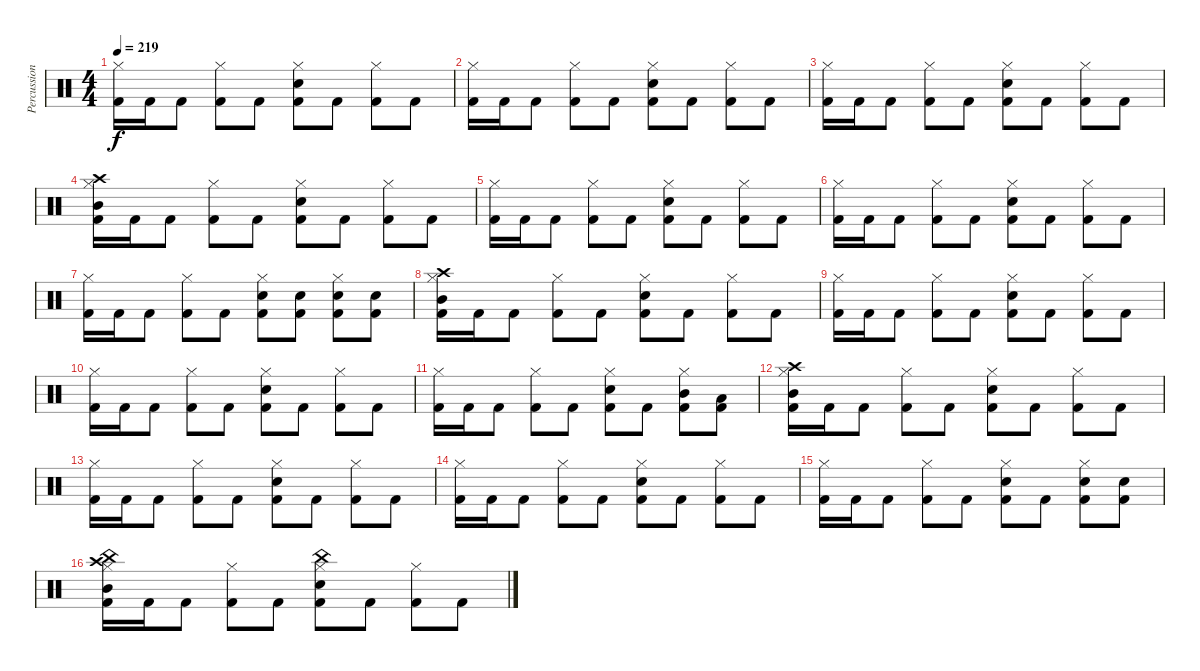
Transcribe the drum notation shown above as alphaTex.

\track ("Percussion" "Percussion") {instrument percussion}
\staff {score}
\articulation defaults
\ts (4 4)
\tempo 219
\clef neutral
\ks c
("Hi-Hat (closed)" "Kick (hit) 2").16{dy f} "Kick (hit) 2".16 "Kick (hit) 2".8 ("Hi-Hat (closed)" "Kick (hit) 2").8 "Kick (hit) 2".8 ("Hi-Hat (closed)" "Electric Snare (hit)" "Kick (hit) 2").8 "Kick (hit) 2".8 ("Hi-Hat (closed)" "Kick (hit) 2").8 "Kick (hit) 2".8 |
("Hi-Hat (closed)" "Kick (hit) 2").16 "Kick (hit) 2".16 "Kick (hit) 2".8 ("Hi-Hat (closed)" "Kick (hit) 2").8 "Kick (hit) 2".8 ("Hi-Hat (closed)" "Electric Snare (hit)" "Kick (hit) 2").8 "Kick (hit) 2".8 ("Hi-Hat (closed)" "Kick (hit) 2").8 "Kick (hit) 2".8 |
("Hi-Hat (closed)" "Kick (hit) 2").16 "Kick (hit) 2".16 "Kick (hit) 2".8 ("Hi-Hat (closed)" "Kick (hit) 2").8 "Kick (hit) 2".8 ("Hi-Hat (closed)" "Electric Snare (hit)" "Kick (hit) 2").8 "Kick (hit) 2".8 ("Hi-Hat (closed)" "Kick (hit) 2").8 "Kick (hit) 2".8 |
("Crash high (hit)" "Mid Tom (hit)" "Hi-Hat (closed)" "Kick (hit) 2").16 "Kick (hit) 2".16 "Kick (hit) 2".8 ("Hi-Hat (closed)" "Kick (hit) 2").8 "Kick (hit) 2".8 ("Hi-Hat (closed)" "Electric Snare (hit)" "Kick (hit) 2").8 "Kick (hit) 2".8 ("Hi-Hat (closed)" "Kick (hit) 2").8 "Kick (hit) 2".8 |
("Hi-Hat (closed)" "Kick (hit) 2").16 "Kick (hit) 2".16 "Kick (hit) 2".8 ("Hi-Hat (closed)" "Kick (hit) 2").8 "Kick (hit) 2".8 ("Hi-Hat (closed)" "Electric Snare (hit)" "Kick (hit) 2").8 "Kick (hit) 2".8 ("Hi-Hat (closed)" "Kick (hit) 2").8 "Kick (hit) 2".8 |
("Hi-Hat (closed)" "Kick (hit) 2").16 "Kick (hit) 2".16 "Kick (hit) 2".8 ("Hi-Hat (closed)" "Kick (hit) 2").8 "Kick (hit) 2".8 ("Hi-Hat (closed)" "Electric Snare (hit)" "Kick (hit) 2").8 "Kick (hit) 2".8 ("Hi-Hat (closed)" "Kick (hit) 2").8 "Kick (hit) 2".8 |
("Hi-Hat (closed)" "Kick (hit) 2").16 "Kick (hit) 2".16 "Kick (hit) 2".8 ("Hi-Hat (closed)" "Kick (hit) 2").8 "Kick (hit) 2".8 ("Hi-Hat (closed)" "Electric Snare (hit)" "Kick (hit) 2").8 ("Electric Snare (hit)" "Kick (hit) 2").8 ("Hi-Hat (closed)" "Electric Snare (hit)" "Kick (hit) 2").8 ("Electric Snare (hit)" "Kick (hit) 2").8 |
("Crash high (hit)" "Mid Tom (hit)" "Hi-Hat (closed)" "Kick (hit) 2").16 "Kick (hit) 2".16 "Kick (hit) 2".8 ("Hi-Hat (closed)" "Kick (hit) 2").8 "Kick (hit) 2".8 ("Hi-Hat (closed)" "Electric Snare (hit)" "Kick (hit) 2").8 "Kick (hit) 2".8 ("Hi-Hat (closed)" "Kick (hit) 2").8 "Kick (hit) 2".8 |
("Hi-Hat (closed)" "Kick (hit) 2").16 "Kick (hit) 2".16 "Kick (hit) 2".8 ("Hi-Hat (closed)" "Kick (hit) 2").8 "Kick (hit) 2".8 ("Hi-Hat (closed)" "Electric Snare (hit)" "Kick (hit) 2").8 "Kick (hit) 2".8 ("Hi-Hat (closed)" "Kick (hit) 2").8 "Kick (hit) 2".8 |
("Hi-Hat (closed)" "Kick (hit) 2").16 "Kick (hit) 2".16 "Kick (hit) 2".8 ("Hi-Hat (closed)" "Kick (hit) 2").8 "Kick (hit) 2".8 ("Hi-Hat (closed)" "Electric Snare (hit)" "Kick (hit) 2").8 "Kick (hit) 2".8 ("Hi-Hat (closed)" "Kick (hit) 2").8 "Kick (hit) 2".8 |
("Hi-Hat (closed)" "Kick (hit) 2").16 "Kick (hit) 2".16 "Kick (hit) 2".8 ("Hi-Hat (closed)" "Kick (hit) 2").8 "Kick (hit) 2".8 ("Hi-Hat (closed)" "Electric Snare (hit)" "Kick (hit) 2").8 "Kick (hit) 2".8 ("Hi-Hat (closed)" "Mid Tom (hit)" "Kick (hit) 2").8 ("Low Tom (hit)" "Kick (hit) 2").8 |
("Crash high (hit)" "Mid Tom (hit)" "Hi-Hat (closed)" "Kick (hit) 2").16 "Kick (hit) 2".16 "Kick (hit) 2".8 ("Hi-Hat (closed)" "Kick (hit) 2").8 "Kick (hit) 2".8 ("Hi-Hat (closed)" "Electric Snare (hit)" "Kick (hit) 2").8 "Kick (hit) 2".8 ("Hi-Hat (closed)" "Kick (hit) 2").8 "Kick (hit) 2".8 |
("Hi-Hat (closed)" "Kick (hit) 2").16 "Kick (hit) 2".16 "Kick (hit) 2".8 ("Hi-Hat (closed)" "Kick (hit) 2").8 "Kick (hit) 2".8 ("Hi-Hat (closed)" "Electric Snare (hit)" "Kick (hit) 2").8 "Kick (hit) 2".8 ("Hi-Hat (closed)" "Kick (hit) 2").8 "Kick (hit) 2".8 |
("Hi-Hat (closed)" "Kick (hit) 2").16 "Kick (hit) 2".16 "Kick (hit) 2".8 ("Hi-Hat (closed)" "Kick (hit) 2").8 "Kick (hit) 2".8 ("Hi-Hat (closed)" "Electric Snare (hit)" "Kick (hit) 2").8 "Kick (hit) 2".8 ("Hi-Hat (closed)" "Kick (hit) 2").8 "Kick (hit) 2".8 |
("Hi-Hat (closed)" "Kick (hit) 2").16 "Kick (hit) 2".16 "Kick (hit) 2".8 ("Hi-Hat (closed)" "Kick (hit) 2").8 "Kick (hit) 2".8 ("Hi-Hat (closed)" "Electric Snare (hit)" "Kick (hit) 2").8 "Kick (hit) 2".8 ("Hi-Hat (closed)" "Electric Snare (hit)" "Kick (hit) 2").8 ("Electric Snare (hit)" "Kick (hit) 2").8 |
("China (hit)" "Crash high (hit)" "Mid Tom (hit)" "Hi-Hat (closed)" "Kick (hit) 2").16 "Kick (hit) 2".16 "Kick (hit) 2".8 ("Hi-Hat (closed)" "Kick (hit) 2").8 "Kick (hit) 2".8 ("China (hit)" "Hi-Hat (closed)" "Electric Snare (hit)" "Kick (hit) 2").8 "Kick (hit) 2".8 ("Hi-Hat (closed)" "Kick (hit) 2").8 "Kick (hit) 2".8
